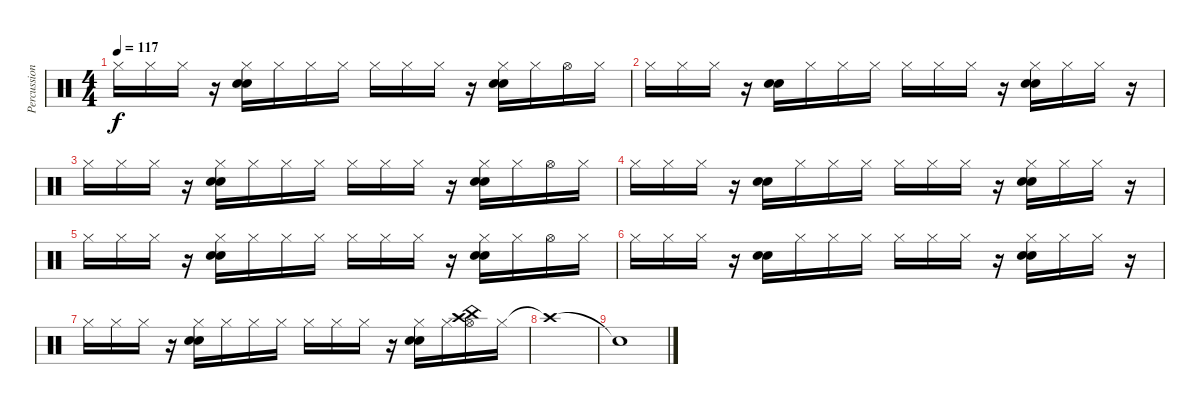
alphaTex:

\track ("Percussions" "Percussion") {instrument percussion}
\staff {score}
\articulation defaults
\ts (4 4)
\tempo 117
\clef neutral
\ks c "Hi-Hat (closed)".16{dy f} "Hi-Hat (closed)".16 "Hi-Hat (closed)".16
r.16 ("Hi-Hat (closed)" "Electric Snare (hit)" "Hand Clap (hit)").16 "Hi-Hat (closed)".16 "Hi-Hat (closed)".16 "Hi-Hat (closed)".16 "Hi-Hat (closed)".16 "Hi-Hat (closed)".16 "Hi-Hat (closed)".16 r.16 ("Hi-Hat (closed)" "Hand Clap (hit)" "Electric Snare (hit)").16 "Hi-Hat (closed)".16 "Hi-Hat (open)".16 "Hi-Hat (closed)".16 |
"Hi-Hat (closed)".16 "Hi-Hat (closed)".16 "Hi-Hat (closed)".16 r.16 ("Electric Snare (hit)" "Hand Clap (hit)").16 "Hi-Hat (closed)".16 "Hi-Hat (closed)".16 "Hi-Hat (closed)".16 "Hi-Hat (closed)".16 "Hi-Hat (closed)".16 "Hi-Hat (closed)".16 r.16 ("Hi-Hat (closed)" "Electric Snare (hit)" "Hand Clap (hit)").16 "Hi-Hat (closed)".16 "Hi-Hat (closed)".16 r.16 |
"Hi-Hat (closed)".16 "Hi-Hat (closed)".16 "Hi-Hat (closed)".16 r.16 ("Hi-Hat (closed)" "Electric Snare (hit)" "Hand Clap (hit)").16 "Hi-Hat (closed)".16 "Hi-Hat (closed)".16 "Hi-Hat (closed)".16 "Hi-Hat (closed)".16 "Hi-Hat (closed)".16 "Hi-Hat (closed)".16 r.16 ("Hi-Hat (closed)" "Hand Clap (hit)" "Electric Snare (hit)").16 "Hi-Hat (closed)".16 "Hi-Hat (open)".16 "Hi-Hat (closed)".16 |
"Hi-Hat (closed)".16 "Hi-Hat (closed)".16 "Hi-Hat (closed)".16 r.16 ("Electric Snare (hit)" "Hand Clap (hit)").16 "Hi-Hat (closed)".16 "Hi-Hat (closed)".16 "Hi-Hat (closed)".16 "Hi-Hat (closed)".16 "Hi-Hat (closed)".16 "Hi-Hat (closed)".16 r.16 ("Hi-Hat (closed)" "Electric Snare (hit)" "Hand Clap (hit)").16 "Hi-Hat (closed)".16 "Hi-Hat (closed)".16 r.16 |
"Hi-Hat (closed)".16 "Hi-Hat (closed)".16 "Hi-Hat (closed)".16 r.16 ("Hi-Hat (closed)" "Electric Snare (hit)" "Hand Clap (hit)").16 "Hi-Hat (closed)".16 "Hi-Hat (closed)".16 "Hi-Hat (closed)".16 "Hi-Hat (closed)".16 "Hi-Hat (closed)".16 "Hi-Hat (closed)".16 r.16 ("Hi-Hat (closed)" "Hand Clap (hit)" "Electric Snare (hit)").16 "Hi-Hat (closed)".16 "Hi-Hat (open)".16 "Hi-Hat (closed)".16 |
"Hi-Hat (closed)".16 "Hi-Hat (closed)".16 "Hi-Hat (closed)".16 r.16 ("Electric Snare (hit)" "Hand Clap (hit)").16 "Hi-Hat (closed)".16 "Hi-Hat (closed)".16 "Hi-Hat (closed)".16 "Hi-Hat (closed)".16 "Hi-Hat (closed)".16 "Hi-Hat (closed)".16 r.16 ("Hi-Hat (closed)" "Electric Snare (hit)" "Hand Clap (hit)").16 "Hi-Hat (closed)".16 "Hi-Hat (closed)".16 r.16 |
"Hi-Hat (closed)".16 "Hi-Hat (closed)".16 "Hi-Hat (closed)".16 r.16 ("Hi-Hat (closed)" "Electric Snare (hit)" "Hand Clap (hit)").16 "Hi-Hat (closed)".16 "Hi-Hat (closed)".16 "Hi-Hat (closed)".16 "Hi-Hat (closed)".16 "Hi-Hat (closed)".16 "Hi-Hat (closed)".16 r.16 ("Hi-Hat (closed)" "Hand Clap (hit)" "Electric Snare (hit)").16 "Hi-Hat (closed)".16 ("Hi-Hat (open)" "China (hit)" "Crash high (hit)").16 "Hi-Hat (closed)".16 |
"Crash high (hit)"{t}.1 |
"Snare (hit)"{t}.1
